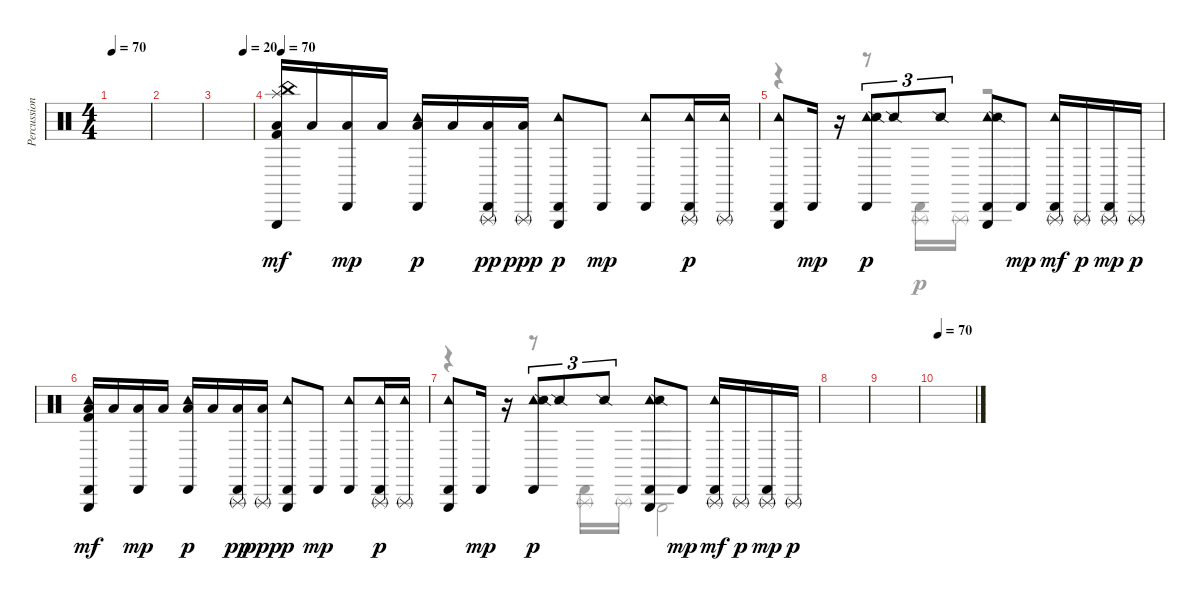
\track ("Percussion" "Percussion") {instrument percussion}
\staff {score}
\articulation defaults
\voice
\ts (4 4)
\tempo 70
\clef neutral
\ks c
|
|
\tempo (20 0.75)
|
\tempo 70
("China (hit)" "Splash (hit)" "Triangle (hit)" "Low Floor Tom (hit)" "Kick (hit) 2").16{dy mf} "Low Floor Tom (hit)".16 ("Cabasa (hit)" "Low Floor Tom (hit)").16{dy mp} "Low Floor Tom (hit)".16 ("Tambourine (hit)" "Cabasa (hit)" "Low Floor Tom (hit)").16{dy p} "Low Floor Tom (hit)".16 ("Cabasa (hit)" "Triangle (rnute)" "Low Floor Tom (hit)").16{dy pp} ("Triangle (rnute)" "Low Floor Tom (hit)").16{dy ppp} ("Tambourine (hit)" "Cabasa (hit)" "Triangle (hit)").8{dy p} "Cabasa (hit)".8{dy mp} ("Tambourine (hit)" "Cabasa (hit)").8 ("Tambourine (hit)" "Cabasa (hit)" "Triangle (rnute)").16{dy p} ("Tambourine (hit)" "Triangle (rnute)").16 |
("Cabasa (hit)" "Tambourine (hit)" "Triangle (hit)").8 "Cabasa (hit)".16{dy mp} r.16 ("Cabasa (hit)" "Tambourine (hit)" "Snare (side stick) 2").8{tu (3 2) dy p} "Snare (side stick) 2".8{tu (3 2)} "Snare (side stick) 2".8{tu (3 2)} ("Cabasa (hit)" "Tambourine (hit)" "Triangle (hit)" "Snare (side stick) 2").8 "Cabasa (hit)".8{dy mp} ("Cabasa (hit)" "Tambourine (hit)" "Triangle (rnute)").16{dy mf} "Triangle (rnute)".16{dy p} ("Cabasa (hit)" "Triangle (rnute)").16{dy mp} "Triangle (rnute)".16{dy p} |
("Tambourine (hit)" "Cabasa (hit)" "Triangle (hit)" "Low Floor Tom (hit)" "Kick (hit) 2").16{dy mf} "Low Floor Tom (hit)".16 ("Cabasa (hit)" "Low Floor Tom (hit)").16{dy mp} "Low Floor Tom (hit)".16 ("Tambourine (hit)" "Cabasa (hit)" "Low Floor Tom (hit)").16{dy p} "Low Floor Tom (hit)".16 ("Cabasa (hit)" "Triangle (rnute)" "Low Floor Tom (hit)").16{dy pp} ("Triangle (rnute)" "Low Floor Tom (hit)").16{dy ppp} ("Tambourine (hit)" "Cabasa (hit)" "Triangle (hit)").8{dy p} "Cabasa (hit)".8{dy mp} ("Tambourine (hit)" "Cabasa (hit)").8 ("Tambourine (hit)" "Cabasa (hit)" "Triangle (rnute)").16{dy p} ("Tambourine (hit)" "Triangle (rnute)").16 |
("Cabasa (hit)" "Tambourine (hit)" "Triangle (hit)").8 "Cabasa (hit)".16{dy mp} r.16 ("Cabasa (hit)" "Tambourine (hit)" "Snare (side stick) 2").8{tu (3 2) dy p} "Snare (side stick) 2".8{tu (3 2)} "Snare (side stick) 2".8{tu (3 2)} ("Cabasa (hit)" "Tambourine (hit)" "Triangle (hit)" "Snare (side stick) 2").8 "Cabasa (hit)".8{dy mp} ("Cabasa (hit)" "Tambourine (hit)" "Triangle (rnute)").16{dy mf} "Triangle (rnute)".16{dy p} ("Cabasa (hit)" "Triangle (rnute)").16{dy mp} "Triangle (rnute)".16{dy p} |
|
|
\tempo 70
|
|
|
|
\voice
\clef neutral
\ottava regular
\simile none
\ks c
|
|
|
|
r.4 r.8 ("Cabasa (hit)" "Triangle (rnute)").16 "Triangle (rnute)".16 r.2 |
|
r.4 r.8 ("Cabasa (hit)" "Triangle (rnute)").16 "Triangle (rnute)".16 "Triangle (hit)".2 |
|
|
|
|
|
|
